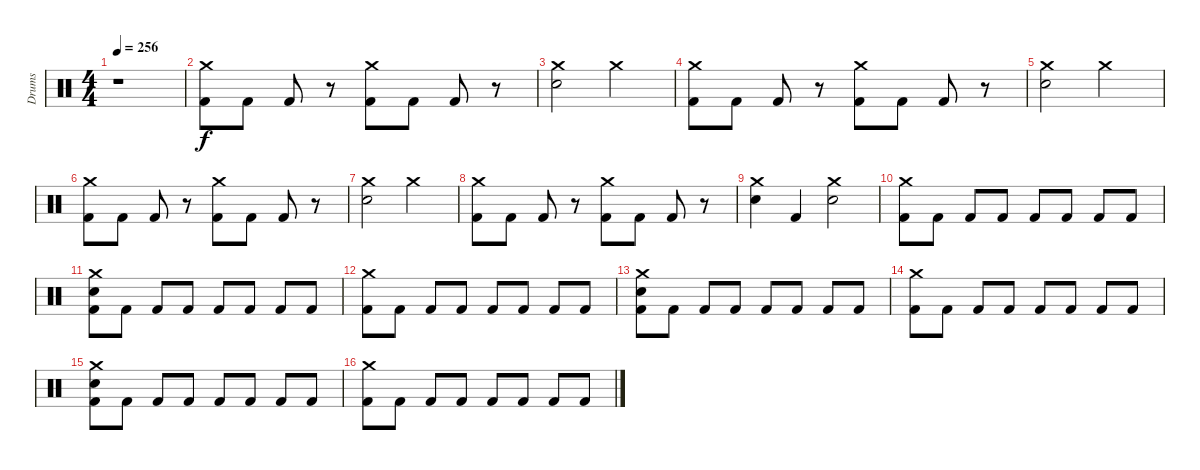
\track ("Drums" "Drums") {instrument percussion}
\staff {score}
\articulation defaults
\ts (4 4)
\tempo 256
\clef neutral
\ks c
r.1{dy f} |
("Crash medium (hit)" "Kick (hit) 2").8 "Kick (hit) 2".8 "Kick (hit) 2".8 r.8 ("Crash medium (hit)" "Kick (hit) 2").8 "Kick (hit) 2".8 "Kick (hit) 2".8 r.8 |
("Crash medium (hit)" "Electric Snare (hit)").2 "Crash medium (hit)".2 |
("Crash medium (hit)" "Kick (hit) 2").8 "Kick (hit) 2".8 "Kick (hit) 2".8 r.8 ("Crash medium (hit)" "Kick (hit) 2").8 "Kick (hit) 2".8 "Kick (hit) 2".8 r.8 |
("Crash medium (hit)" "Electric Snare (hit)").2 "Crash medium (hit)".2 |
("Crash medium (hit)" "Kick (hit) 2").8 "Kick (hit) 2".8 "Kick (hit) 2".8 r.8 ("Crash medium (hit)" "Kick (hit) 2").8 "Kick (hit) 2".8 "Kick (hit) 2".8 r.8 |
("Crash medium (hit)" "Electric Snare (hit)").2 "Crash medium (hit)".2 |
("Crash medium (hit)" "Kick (hit) 2").8 "Kick (hit) 2".8 "Kick (hit) 2".8 r.8 ("Crash medium (hit)" "Kick (hit) 2").8 "Kick (hit) 2".8 "Kick (hit) 2".8 r.8 |
("Crash medium (hit)" "Electric Snare (hit)").4 "Kick (hit) 2".4 ("Crash medium (hit)" "Electric Snare (hit)").2 |
("Crash medium (hit)" "Kick (hit) 2").8 "Kick (hit) 2".8 "Kick (hit) 2".8 "Kick (hit) 2".8 "Kick (hit) 2".8 "Kick (hit) 2".8 "Kick (hit) 2".8 "Kick (hit) 2".8 |
("Crash medium (hit)" "Electric Snare (hit)" "Kick (hit) 2").8 "Kick (hit) 2".8 "Kick (hit) 2".8 "Kick (hit) 2".8 "Kick (hit) 2".8 "Kick (hit) 2".8 "Kick (hit) 2".8 "Kick (hit) 2".8 |
("Crash medium (hit)" "Kick (hit) 2").8 "Kick (hit) 2".8 "Kick (hit) 2".8 "Kick (hit) 2".8 "Kick (hit) 2".8 "Kick (hit) 2".8 "Kick (hit) 2".8 "Kick (hit) 2".8 |
("Crash medium (hit)" "Electric Snare (hit)" "Kick (hit) 2").8 "Kick (hit) 2".8 "Kick (hit) 2".8 "Kick (hit) 2".8 "Kick (hit) 2".8 "Kick (hit) 2".8 "Kick (hit) 2".8 "Kick (hit) 2".8 |
("Crash medium (hit)" "Kick (hit) 2").8 "Kick (hit) 2".8 "Kick (hit) 2".8 "Kick (hit) 2".8 "Kick (hit) 2".8 "Kick (hit) 2".8 "Kick (hit) 2".8 "Kick (hit) 2".8 |
("Crash medium (hit)" "Electric Snare (hit)" "Kick (hit) 2").8 "Kick (hit) 2".8 "Kick (hit) 2".8 "Kick (hit) 2".8 "Kick (hit) 2".8 "Kick (hit) 2".8 "Kick (hit) 2".8 "Kick (hit) 2".8 |
("Crash medium (hit)" "Kick (hit) 2").8 "Kick (hit) 2".8 "Kick (hit) 2".8 "Kick (hit) 2".8 "Kick (hit) 2".8 "Kick (hit) 2".8 "Kick (hit) 2".8 "Kick (hit) 2".8
